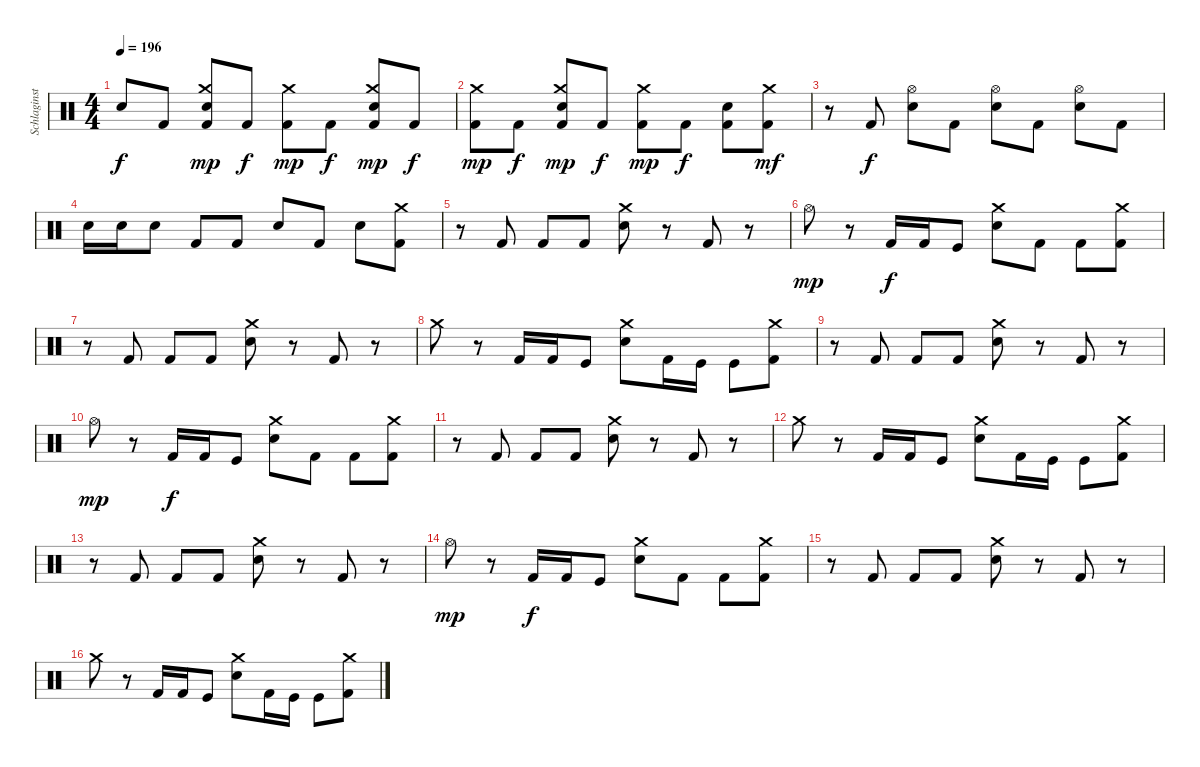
\track ("Schlaginstrumente - Auswahl" "Schlaginst") {instrument percussion}
\staff
\articulation defaults
\ts (4 4)
\tempo 196
\clef neutral
\ks c "Snare (hit)"{t}.8{dy f} "Kick (hit) 2".8
("Crash medium (hit)" "Electric Snare (hit)" "Kick (hit) 2").8{dy mp} "Kick (hit) 2".8{dy f} ("Crash medium (hit)" "Kick (hit) 2").8{dy mp} "Kick (hit) 2".8{dy f} ("Crash medium (hit)" "Electric Snare (hit)" "Kick (hit) 2").8{dy mp} "Kick (hit) 2".8{dy f} |
("Crash medium (hit)" "Kick (hit) 2").8{dy mp} "Kick (hit) 2".8{dy f} ("Crash medium (hit)" "Electric Snare (hit)" "Kick (hit) 2").8{dy mp} "Kick (hit) 2".8{dy f} ("Crash medium (hit)" "Kick (hit) 2").8{dy mp} "Kick (hit) 2".8{dy f} ("Electric Snare (hit)" "Kick (hit) 2").8 ("Crash medium (hit)" "Kick (hit) 2").8{dy mf} |
r.8 "Kick (hit) 2".8{dy f} ("Hi-Hat (open)" "Electric Snare (hit)").8 "Kick (hit) 2".8 ("Hi-Hat (open)" "Electric Snare (hit)").8 "Kick (hit) 2".8 ("Hi-Hat (open)" "Electric Snare (hit)").8 "Kick (hit) 2".8 |
"Electric Snare (hit)".16 "Electric Snare (hit)".16 "Electric Snare (hit)".8 "Kick (hit) 2".8 "Kick (hit) 2".8 "Electric Snare (hit)".8 "Kick (hit) 2".8 "Electric Snare (hit)".8 ("Crash medium (hit)" "Kick (hit) 2").8 |
r.8 "Kick (hit) 2".8 "Kick (hit) 2".8 "Kick (hit) 2".8 ("Crash medium (hit)" "Snare (hit) 2").8 r.8 "Kick (hit) 2".8 r.8 |
"Hi-Hat (open)".8{dy mp} r.8 "Kick (hit) 2".16{dy f} "Kick (hit) 2".16 "Kick (hit)".8 ("Crash medium (hit)" "Electric Snare (hit)").8 "Kick (hit) 2".8 "Kick (hit) 2".8 ("Crash medium (hit)" "Kick (hit) 2").8 |
r.8 "Kick (hit) 2".8 "Kick (hit) 2".8 "Kick (hit) 2".8 ("Crash medium (hit)" "Snare (hit) 2").8 r.8 "Kick (hit) 2".8 r.8 |
"Crash medium (hit)".8 r.8 "Kick (hit) 2".16 "Kick (hit) 2".16 "Kick (hit)".8 ("Crash medium (hit)" "Electric Snare (hit)").8 "Kick (hit) 2".16 "Kick (hit)".16 "Kick (hit)".8 ("Crash medium (hit)" "Kick (hit) 2").8 |
r.8 "Kick (hit) 2".8 "Kick (hit) 2".8 "Kick (hit) 2".8 ("Crash medium (hit)" "Snare (hit) 2").8 r.8 "Kick (hit) 2".8 r.8 |
"Hi-Hat (open)".8{dy mp} r.8 "Kick (hit) 2".16{dy f} "Kick (hit) 2".16 "Kick (hit)".8 ("Crash medium (hit)" "Electric Snare (hit)").8 "Kick (hit) 2".8 "Kick (hit) 2".8 ("Crash medium (hit)" "Kick (hit) 2").8 |
r.8 "Kick (hit) 2".8 "Kick (hit) 2".8 "Kick (hit) 2".8 ("Crash medium (hit)" "Snare (hit) 2").8 r.8 "Kick (hit) 2".8 r.8 |
"Crash medium (hit)".8 r.8 "Kick (hit) 2".16 "Kick (hit) 2".16 "Kick (hit)".8 ("Crash medium (hit)" "Electric Snare (hit)").8 "Kick (hit) 2".16 "Kick (hit)".16 "Kick (hit)".8 ("Crash medium (hit)" "Kick (hit) 2").8 |
r.8 "Kick (hit) 2".8 "Kick (hit) 2".8 "Kick (hit) 2".8 ("Crash medium (hit)" "Snare (hit) 2").8 r.8 "Kick (hit) 2".8 r.8 |
"Hi-Hat (open)".8{dy mp} r.8 "Kick (hit) 2".16{dy f} "Kick (hit) 2".16 "Kick (hit)".8 ("Crash medium (hit)" "Electric Snare (hit)").8 "Kick (hit) 2".8 "Kick (hit) 2".8 ("Crash medium (hit)" "Kick (hit) 2").8 |
r.8 "Kick (hit) 2".8 "Kick (hit) 2".8 "Kick (hit) 2".8 ("Crash medium (hit)" "Snare (hit) 2").8 r.8 "Kick (hit) 2".8 r.8 |
"Crash medium (hit)".8 r.8 "Kick (hit) 2".16 "Kick (hit) 2".16 "Kick (hit)".8 ("Crash medium (hit)" "Electric Snare (hit)").8 "Kick (hit) 2".16 "Kick (hit)".16 "Kick (hit)".8 ("Crash medium (hit)" "Kick (hit) 2").8
